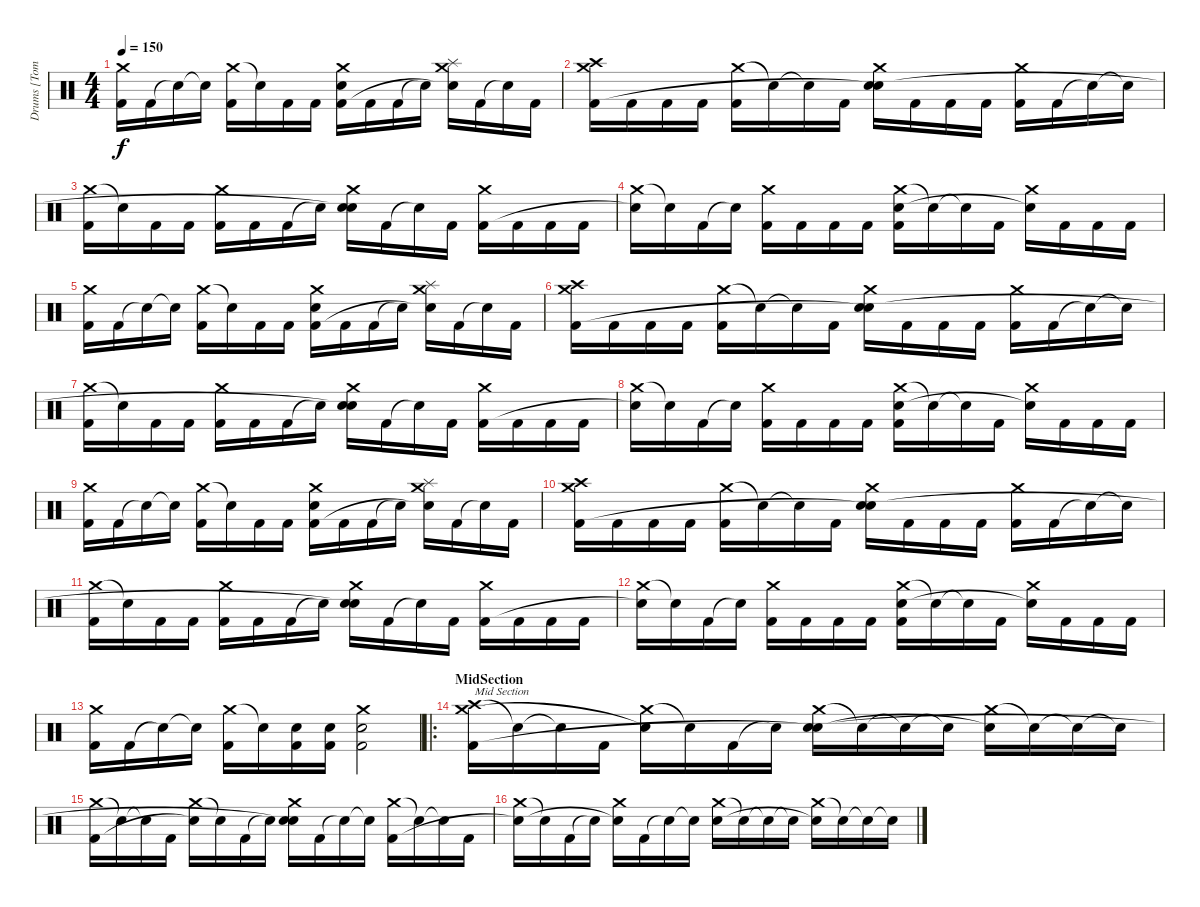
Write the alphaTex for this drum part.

\track ("Drums [Tomas Haake]" "Drums [Tom") {instrument percussion}
\staff {score}
\articulation defaults
\ts (4 4)
\tempo 150
\clef neutral
\ks c
("Crash medium (hit)" "Kick (hit) 2").16{dy f} "Kick (hit) 2".16 "Snare (hit)"{t}.16 "Snare (hit)"{t}.16 ("Crash medium (hit)" "Kick (hit) 2").16 "Snare (hit)"{t}.16 "Kick (hit) 2".16 "Kick (hit) 2".16 ("Crash medium (hit)" "Electric Snare (hit)" "Kick (hit) 2").16 "Kick (hit) 2".16 "Kick (hit) 2".16 "Snare (hit)"{t}.16 ("Splash (hit)" "Crash medium (hit)" "Snare (hit)"{t}).16 "Kick (hit) 2".16 "Snare (hit)"{t}.16 "Kick (hit) 2".16 |
("Crash high (hit)" "Crash medium (hit)" "Kick (hit) 2").16 "Kick (hit) 2".16 "Kick (hit) 2".16 "Kick (hit) 2".16 ("Crash medium (hit)" "Kick (hit) 2").16 "Snare (hit)"{t}.16 "Snare (hit)"{t}.16 "Kick (hit) 2".16 ("Crash medium (hit)" "Electric Snare (hit)" "Snare (hit)"{t}).16 "Kick (hit) 2".16 "Kick (hit) 2".16 "Kick (hit) 2".16 ("Crash medium (hit)" "Kick (hit) 2").16 "Kick (hit) 2".16 "Snare (hit)"{t}.16 "Snare (hit)"{t}.16 |
("Crash medium (hit)" "Kick (hit) 2").16 "Snare (hit)"{t}.16 "Kick (hit) 2".16 "Kick (hit) 2".16 ("Crash medium (hit)" "Kick (hit) 2").16 "Kick (hit) 2".16 "Kick (hit) 2".16 "Snare (hit)"{t}.16 ("Crash medium (hit)" "Electric Snare (hit)" "Snare (hit)"{t}).16 "Kick (hit) 2".16 "Snare (hit)"{t}.16 "Kick (hit) 2".16 ("Crash medium (hit)" "Kick (hit) 2").16 "Kick (hit) 2".16 "Kick (hit) 2".16 "Kick (hit) 2".16 |
("Crash medium (hit)" "Snare (hit)"{t}).16 "Snare (hit)"{t}.16 "Kick (hit) 2".16 "Snare (hit)"{t}.16 ("Crash medium (hit)" "Kick (hit) 2").16 "Kick (hit) 2".16 "Kick (hit) 2".16 "Kick (hit) 2".16 ("Crash medium (hit)" "Electric Snare (hit)" "Kick (hit) 2").16 "Snare (hit)"{t}.16 "Snare (hit)"{t}.16 "Kick (hit) 2".16 ("Crash medium (hit)" "Snare (hit)"{t}).16 "Kick (hit) 2".16 "Kick (hit) 2".16 "Kick (hit) 2".16 |
("Crash medium (hit)" "Kick (hit) 2").16 "Kick (hit) 2".16 "Snare (hit)"{t}.16 "Snare (hit)"{t}.16 ("Crash medium (hit)" "Kick (hit) 2").16 "Snare (hit)"{t}.16 "Kick (hit) 2".16 "Kick (hit) 2".16 ("Crash medium (hit)" "Electric Snare (hit)" "Kick (hit) 2").16 "Kick (hit) 2".16 "Kick (hit) 2".16 "Snare (hit)"{t}.16 ("Splash (hit)" "Crash medium (hit)" "Snare (hit)"{t}).16 "Kick (hit) 2".16 "Snare (hit)"{t}.16 "Kick (hit) 2".16 |
("Crash high (hit)" "Crash medium (hit)" "Kick (hit) 2").16 "Kick (hit) 2".16 "Kick (hit) 2".16 "Kick (hit) 2".16 ("Crash medium (hit)" "Kick (hit) 2").16 "Snare (hit)"{t}.16 "Snare (hit)"{t}.16 "Kick (hit) 2".16 ("Crash medium (hit)" "Electric Snare (hit)" "Snare (hit)"{t}).16 "Kick (hit) 2".16 "Kick (hit) 2".16 "Kick (hit) 2".16 ("Crash medium (hit)" "Kick (hit) 2").16 "Kick (hit) 2".16 "Snare (hit)"{t}.16 "Snare (hit)"{t}.16 |
("Crash medium (hit)" "Kick (hit) 2").16 "Snare (hit)"{t}.16 "Kick (hit) 2".16 "Kick (hit) 2".16 ("Crash medium (hit)" "Kick (hit) 2").16 "Kick (hit) 2".16 "Kick (hit) 2".16 "Snare (hit)"{t}.16 ("Crash medium (hit)" "Electric Snare (hit)" "Snare (hit)"{t}).16 "Kick (hit) 2".16 "Snare (hit)"{t}.16 "Kick (hit) 2".16 ("Crash medium (hit)" "Kick (hit) 2").16 "Kick (hit) 2".16 "Kick (hit) 2".16 "Kick (hit) 2".16 |
("Crash medium (hit)" "Snare (hit)"{t}).16 "Snare (hit)"{t}.16 "Kick (hit) 2".16 "Snare (hit)"{t}.16 ("Crash medium (hit)" "Kick (hit) 2").16 "Kick (hit) 2".16 "Kick (hit) 2".16 "Kick (hit) 2".16 ("Crash medium (hit)" "Electric Snare (hit)" "Kick (hit) 2").16 "Snare (hit)"{t}.16 "Snare (hit)"{t}.16 "Kick (hit) 2".16 ("Crash medium (hit)" "Snare (hit)"{t}).16 "Kick (hit) 2".16 "Kick (hit) 2".16 "Kick (hit) 2".16 |
("Crash medium (hit)" "Kick (hit) 2").16 "Kick (hit) 2".16 "Snare (hit)"{t}.16 "Snare (hit)"{t}.16 ("Crash medium (hit)" "Kick (hit) 2").16 "Snare (hit)"{t}.16 "Kick (hit) 2".16 "Kick (hit) 2".16 ("Crash medium (hit)" "Electric Snare (hit)" "Kick (hit) 2").16 "Kick (hit) 2".16 "Kick (hit) 2".16 "Snare (hit)"{t}.16 ("Splash (hit)" "Crash medium (hit)" "Snare (hit)"{t}).16 "Kick (hit) 2".16 "Snare (hit)"{t}.16 "Kick (hit) 2".16 |
("Crash high (hit)" "Crash medium (hit)" "Kick (hit) 2").16 "Kick (hit) 2".16 "Kick (hit) 2".16 "Kick (hit) 2".16 ("Crash medium (hit)" "Kick (hit) 2").16 "Snare (hit)"{t}.16 "Snare (hit)"{t}.16 "Kick (hit) 2".16 ("Crash medium (hit)" "Electric Snare (hit)" "Snare (hit)"{t}).16 "Kick (hit) 2".16 "Kick (hit) 2".16 "Kick (hit) 2".16 ("Crash medium (hit)" "Kick (hit) 2").16 "Kick (hit) 2".16 "Snare (hit)"{t}.16 "Snare (hit)"{t}.16 |
("Crash medium (hit)" "Kick (hit) 2").16 "Snare (hit)"{t}.16 "Kick (hit) 2".16 "Kick (hit) 2".16 ("Crash medium (hit)" "Kick (hit) 2").16 "Kick (hit) 2".16 "Kick (hit) 2".16 "Snare (hit)"{t}.16 ("Crash medium (hit)" "Electric Snare (hit)" "Snare (hit)"{t}).16 "Kick (hit) 2".16 "Snare (hit)"{t}.16 "Kick (hit) 2".16 ("Crash medium (hit)" "Kick (hit) 2").16 "Kick (hit) 2".16 "Kick (hit) 2".16 "Kick (hit) 2".16 |
("Crash medium (hit)" "Snare (hit)"{t}).16 "Snare (hit)"{t}.16 "Kick (hit) 2".16 "Snare (hit)"{t}.16 ("Crash medium (hit)" "Kick (hit) 2").16 "Kick (hit) 2".16 "Kick (hit) 2".16 "Kick (hit) 2".16 ("Crash medium (hit)" "Electric Snare (hit)" "Kick (hit) 2").16 "Snare (hit)"{t}.16 "Snare (hit)"{t}.16 "Kick (hit) 2".16 ("Crash medium (hit)" "Snare (hit)"{t}).16 "Kick (hit) 2".16 "Kick (hit) 2".16 "Kick (hit) 2".16 |
("Crash medium (hit)" "Kick (hit) 2").16 "Kick (hit) 2".16 "Snare (hit)"{t}.16 "Snare (hit)"{t}.16 ("Crash medium (hit)" "Kick (hit) 2").16 "Snare (hit)"{t}.16 ("Electric Snare (hit)" "Kick (hit) 2").16 ("Electric Snare (hit)" "Kick (hit) 2").16 ("Crash medium (hit)" "Electric Snare (hit)" "Kick (hit) 2").2 |
\ro
\section ("" "MidSection")
("Crash high (hit)" "Crash medium (hit)" "Kick (hit) 2").16{txt "Mid Section"} "Snare (hit)"{t}.16 "Snare (hit)"{t}.16 "Kick (hit) 2".16 ("Crash medium (hit)" "Snare (hit)"{t}).16 "Snare (hit)"{t}.16 "Kick (hit) 2".16 "Snare (hit)"{t}.16 ("Crash medium (hit)" "Electric Snare (hit)" "Snare (hit)"{t}).16 "Snare (hit)"{t}.16 "Snare (hit)"{t}.16 "Snare (hit)"{t}.16 ("Crash medium (hit)" "Snare (hit)"{t}).16 "Snare (hit)"{t}.16 "Snare (hit)"{t}.16 "Snare (hit)"{t}.16 |
("Crash medium (hit)" "Kick (hit) 2").16 "Snare (hit)"{t}.16 "Snare (hit)"{t}.16 "Kick (hit) 2".16 ("Crash medium (hit)" "Snare (hit)"{t}).16 "Snare (hit)"{t}.16 "Kick (hit) 2".16 "Snare (hit)"{t}.16 ("Crash medium (hit)" "Electric Snare (hit)" "Snare (hit)"{t}).16 "Kick (hit) 2".16 "Snare (hit)"{t}.16 "Snare (hit)"{t}.16 ("Crash medium (hit)" "Kick (hit) 2").16 "Snare (hit)"{t}.16 "Snare (hit)"{t}.16 "Kick (hit) 2".16 |
("Crash medium (hit)" "Snare (hit)"{t}).16 "Snare (hit)"{t}.16 "Kick (hit) 2".16 "Snare (hit)"{t}.16 ("Crash medium (hit)" "Snare (hit)"{t}).16 "Kick (hit) 2".16 "Snare (hit)"{t}.16 "Snare (hit)"{t}.16 ("Crash medium (hit)" "Electric Snare (hit)").16 "Snare (hit)"{t}.16 "Snare (hit)"{t}.16 "Snare (hit)"{t}.16 ("Crash medium (hit)" "Snare (hit)"{t}).16 "Snare (hit)"{t}.16 "Snare (hit)"{t}.16 "Snare (hit)"{t}.16
